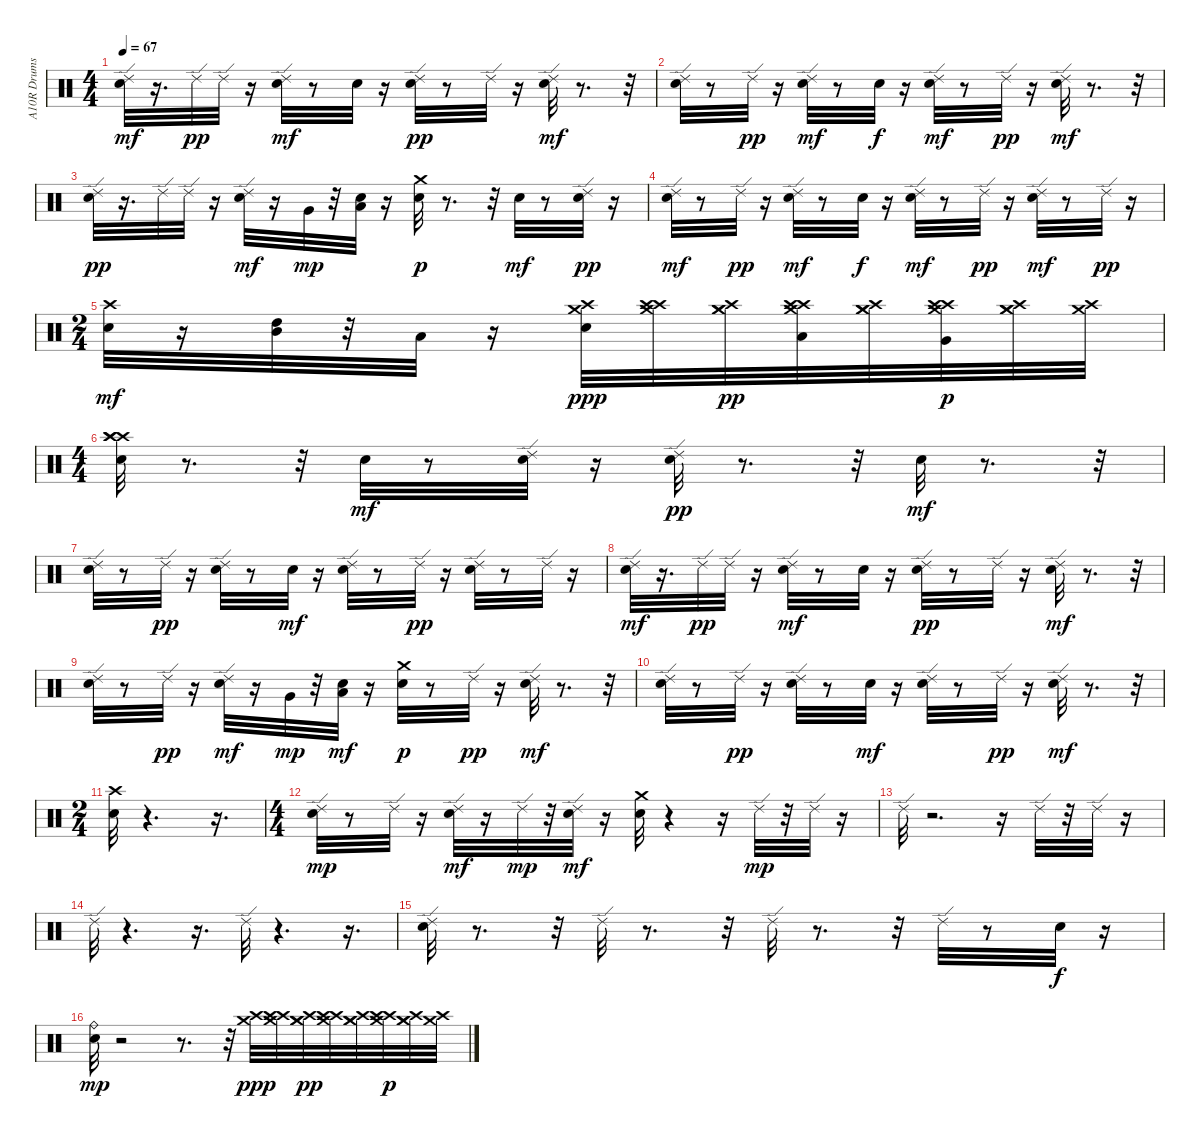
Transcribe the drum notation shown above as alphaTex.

\track ("A10R Drums" "A10R Drums") {instrument percussion}
\staff {score}
\articulation defaults
\ts (4 4)
\tempo 67
\clef neutral
\ks c
("Ride (edge) 2" "Snare (hit)").32{dy mf} r.16{d} "Ride (edge) 2".32{dy pp} "Ride (edge) 2".32 r.16 ("Ride (edge) 2" "Snare (hit)").32{dy mf} r.8 "Snare (hit)".32 r.16 ("Snare (hit)" "Ride (edge) 2").32{dy pp} r.8 "Ride (edge) 2".32 r.16 ("Ride (edge) 2" "Snare (hit)").32{dy mf} r.8{d} r.32 |
("Ride (edge) 2" "Snare (hit)").32 r.8 "Ride (edge) 2".32{dy pp} r.16 ("Ride (edge) 2" "Snare (hit)").32{dy mf} r.8 "Snare (hit)".32{dy f} r.16 ("Ride (edge) 2" "Snare (hit)").32{dy mf} r.8 "Ride (edge) 2".32{dy pp} r.16 ("Ride (edge) 2" "Snare (hit)").32{dy mf} r.8{d} r.32 |
("Ride (edge) 2" "Snare (hit)").32{dy pp} r.16{d} "Ride (edge) 2".32 "Ride (edge) 2".32 r.16 ("Ride (edge) 2" "Snare (hit)").32{dy mf} r.16 "Very Low Tom (hit)".32{dy mp} r.32 ("Snare (hit)" "Low Floor Tom (hit)").32 r.16 ("Snare (hit)" "Crash medium (hit)").32{dy p} r.8{d} r.32 "Snare (hit)".32{dy mf} r.8 ("Snare (hit)" "Ride (edge) 2").32{dy pp} r.16 |
("Ride (edge) 2" "Snare (hit)").32{dy mf} r.8 "Ride (edge) 2".32{dy pp} r.16 ("Ride (edge) 2" "Snare (hit)").32{dy mf} r.8 "Snare (hit)".32{dy f} r.16 ("Ride (edge) 2" "Snare (hit)").32{dy mf} r.8 "Ride (edge) 2".32{dy pp} r.16 ("Ride (edge) 2" "Snare (hit)").32{dy mf} r.8 "Ride (edge) 2".32{dy pp} r.16 |
\ts (2 4)
("Crash high (hit)" "Snare (hit)").32{dy mf} r.16 ("Mid Tom (hit)" "High Tom (hit)").32 r.32 "Low Tom (hit)".32 r.16 ("Snare (hit)" "Crash high (hit)" "Crash medium (hit)").32{dy ppp} ("Crash high (hit)" "Crash medium (hit)" "Crash high (hit)").32 ("Crash medium (hit)" "Crash high (hit)" "Crash medium (hit)").32{dy pp} ("Low Tom (hit)" "Crash high (hit)" "Crash medium (hit)" "Crash high (hit)").32 ("Crash medium (hit)" "Crash high (hit)" "Crash medium (hit)").32 ("Crash high (hit)" "Crash medium (hit)" "Very Low Tom (hit)" "Crash high (hit)").32{dy p} ("Crash medium (hit)" "Crash high (hit)" "Crash medium (hit)").32 ("Crash high (hit)" "Crash medium (hit)").32 |
\ts (4 4)
("Crash high (hit)" "Snare (hit)" "Crash high (hit)" "Crash high (hit)").32 r.8{d} r.32 "Snare (hit)".32{dy mf} r.8 ("Ride (edge) 2" "Snare (hit)").32 r.16 ("Snare (hit)" "Ride (edge) 2").32{dy pp} r.8{d} r.32 "Snare (hit)".32{dy mf} r.8{d} r.32 |
("Ride (edge) 2" "Snare (hit)").32 r.8 "Ride (edge) 2".32{dy pp} r.16 ("Snare (hit)" "Ride (edge) 2").32 r.8 "Snare (hit)".32{dy mf} r.16 ("Ride (edge) 2" "Snare (hit)").32 r.8 "Ride (edge) 2".32{dy pp} r.16 ("Snare (hit)" "Ride (edge) 2").32 r.8 "Ride (edge) 2".32 r.16 |
("Ride (edge) 2" "Snare (hit)").32{dy mf} r.16{d} "Ride (edge) 2".32{dy pp} "Ride (edge) 2".32 r.16 ("Ride (edge) 2" "Snare (hit)").32{dy mf} r.8 "Snare (hit)".32 r.16 ("Ride (edge) 2" "Snare (hit)").32{dy pp} r.8 "Ride (edge) 2".32 r.16 ("Ride (edge) 2" "Snare (hit)").32{dy mf} r.8{d} r.32 |
("Ride (edge) 2" "Snare (hit)").32 r.8 "Ride (edge) 2".32{dy pp} r.16 ("Ride (edge) 2" "Snare (hit)").32{dy mf} r.16 "Very Low Tom (hit)".32{dy mp} r.32 ("Low Floor Tom (hit)" "Snare (hit)").32{dy mf} r.16 ("Snare (hit)" "Crash medium (hit)").32{dy p} r.8 "Ride (edge) 2".32{dy pp} r.16 ("Ride (edge) 2" "Snare (hit)").32{dy mf} r.8{d} r.32 |
("Ride (edge) 2" "Snare (hit)").32 r.8 "Ride (edge) 2".32{dy pp} r.16 ("Snare (hit)" "Ride (edge) 2").32 r.8 "Snare (hit)".32{dy mf} r.16 ("Ride (edge) 2" "Snare (hit)").32 r.8 "Ride (edge) 2".32{dy pp} r.16 ("Ride (edge) 2" "Snare (hit)").32{dy mf} r.8{d} r.32 |
\ts (2 4)
("Snare (hit)" "Crash high (hit)").32 r.4{d} r.16{d} |
\ts (4 4)
("Snare (hit)" "Ride (edge) 2").32{dy mp} r.8 "Ride (edge) 2".32 r.16 ("Ride (edge) 2" "Snare (hit)").32{dy mf} r.16 "Ride (edge) 2".32{dy mp} r.32 ("Ride (edge) 2" "Snare (hit)").32{dy mf} r.16 ("Crash medium (hit)" "Snare (hit)").32 r.4 r.16 "Ride (edge) 2".32{dy mp} r.32 "Ride (edge) 2".32 r.16 |
"Ride (edge) 2".32 r.2{d} r.16 "Ride (edge) 2".32 r.32 "Ride (edge) 2".32 r.16 |
"Ride (edge) 2".32 r.4{d} r.16{d} "Ride (edge) 2".32 r.4{d} r.16{d} |
("Snare (hit)" "Ride (edge) 2").32 r.8{d} r.32 "Ride (edge) 2".32 r.8{d} r.32 "Ride (edge) 2".32 r.8{d} r.32 "Ride (edge) 2".32 r.8 "Snare (hit)".32{dy f} r.16 |
("Snare (hit)" "Ride (bell)").32{dy mp} r.2 r.8{d} r.32 ("Crash high (hit)" "Crash medium (hit)").32{dy ppp} ("Crash high (hit)" "Crash medium (hit)" "Crash high (hit)").32 ("Crash medium (hit)" "Crash high (hit)" "Crash medium (hit)").32{dy pp} ("Crash high (hit)" "Crash medium (hit)" "Crash high (hit)").32 ("Crash medium (hit)" "Crash high (hit)" "Crash medium (hit)").32 ("Crash high (hit)" "Crash medium (hit)" "Crash high (hit)").32{dy p} ("Crash medium (hit)" "Crash high (hit)" "Crash medium (hit)").32 ("Crash high (hit)" "Crash medium (hit)").32
